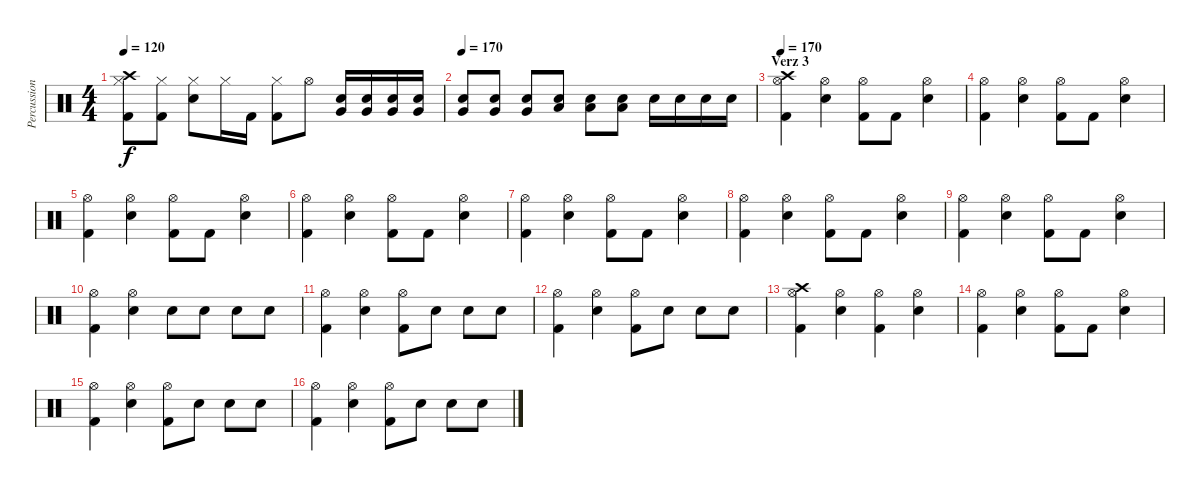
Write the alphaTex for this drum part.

\track ("Percussion - Who the fuck knows" "Percussion") {instrument percussion}
\staff {score}
\articulation defaults
\ts (4 4)
\tempo 120
\clef neutral
\ks c
("Hi-Hat (closed)" "Kick (hit) 2" "Crash high (hit)").8{dy f} ("Hi-Hat (closed)" "Kick (hit) 2").8 ("Hi-Hat (closed)" "Snare (hit) 2").8 "Hi-Hat (closed)".16 "Kick (hit) 2".16 ("Hi-Hat (closed)" "Kick (hit) 2").8 "Hi-Hat (open)".8 ("Snare (hit) 2" "Very Low Tom (hit)").16 ("Very Low Tom (hit)" "Snare (hit) 2").16 ("Very Low Tom (hit)" "Snare (hit) 2").16 ("Very Low Tom (hit)" "Snare (hit) 2").16 |
\tempo 170
("Very Low Tom (hit)" "Snare (hit) 2").8 ("Very Low Tom (hit)" "Snare (hit) 2").8 ("Very Low Tom (hit)" "Snare (hit) 2").8 ("Low Floor Tom (hit)" "Snare (hit) 2").8 ("Low Floor Tom (hit)" "Snare (hit) 2").8 ("Low Floor Tom (hit)" "Snare (hit) 2").8 "Snare (hit) 2".16 "Snare (hit) 2".16 "Snare (hit) 2".16 "Snare (hit) 2".16 |
\section ("" "Verz 3")
\tempo 170
("Crash high (hit)" "Kick (hit) 2" "Hi-Hat (open)").4 ("Hi-Hat (open)" "Snare (hit) 2").4 ("Hi-Hat (open)" "Kick (hit) 2").8 "Kick (hit) 2".8 ("Hi-Hat (open)" "Snare (hit) 2").4 |
("Hi-Hat (open)" "Kick (hit) 2").4 ("Hi-Hat (open)" "Snare (hit) 2").4 ("Hi-Hat (open)" "Kick (hit) 2").8 "Kick (hit) 2".8 ("Hi-Hat (open)" "Snare (hit) 2").4 |
("Hi-Hat (open)" "Kick (hit) 2").4 ("Hi-Hat (open)" "Snare (hit) 2").4 ("Hi-Hat (open)" "Kick (hit) 2").8 "Kick (hit) 2".8 ("Hi-Hat (open)" "Snare (hit) 2").4 |
("Hi-Hat (open)" "Kick (hit) 2").4 ("Hi-Hat (open)" "Snare (hit) 2").4 ("Hi-Hat (open)" "Kick (hit) 2").8 "Kick (hit) 2".8 ("Hi-Hat (open)" "Snare (hit) 2").4 |
("Kick (hit) 2" "Hi-Hat (open)").4 ("Hi-Hat (open)" "Snare (hit) 2").4 ("Hi-Hat (open)" "Kick (hit) 2").8 "Kick (hit) 2".8 ("Hi-Hat (open)" "Snare (hit) 2").4 |
("Hi-Hat (open)" "Kick (hit) 2").4 ("Hi-Hat (open)" "Snare (hit) 2").4 ("Hi-Hat (open)" "Kick (hit) 2").8 "Kick (hit) 2".8 ("Hi-Hat (open)" "Snare (hit) 2").4 |
("Hi-Hat (open)" "Kick (hit) 2").4 ("Hi-Hat (open)" "Snare (hit) 2").4 ("Hi-Hat (open)" "Kick (hit) 2").8 "Kick (hit) 2".8 ("Hi-Hat (open)" "Snare (hit) 2").4 |
("Hi-Hat (open)" "Kick (hit) 2").4 ("Hi-Hat (open)" "Snare (hit) 2").4 "Snare (hit) 2".8 "Snare (hit) 2".8 "Snare (hit) 2".8 "Snare (hit) 2".8 |
("Hi-Hat (open)" "Kick (hit) 2").4 ("Hi-Hat (open)" "Snare (hit) 2").4 ("Hi-Hat (open)" "Kick (hit) 2").8 "Snare (hit) 2".8 "Snare (hit) 2".8 "Snare (hit) 2".8 |
("Hi-Hat (open)" "Kick (hit) 2").4 ("Hi-Hat (open)" "Snare (hit) 2").4 ("Hi-Hat (open)" "Kick (hit) 2").8 "Snare (hit) 2".8 "Snare (hit) 2".8 "Snare (hit) 2".8 |
("Hi-Hat (open)" "Kick (hit) 2" "Crash high (hit)").4 ("Hi-Hat (open)" "Snare (hit) 2").4 ("Hi-Hat (open)" "Kick (hit) 2").4 ("Hi-Hat (open)" "Snare (hit) 2").4 |
("Hi-Hat (open)" "Kick (hit) 2").4 ("Hi-Hat (open)" "Snare (hit) 2").4 ("Hi-Hat (open)" "Kick (hit) 2").8 "Kick (hit) 2".8 ("Hi-Hat (open)" "Snare (hit) 2").4 |
("Hi-Hat (open)" "Kick (hit) 2").4 ("Hi-Hat (open)" "Snare (hit) 2").4 ("Hi-Hat (open)" "Kick (hit) 2").8 "Snare (hit) 2".8 "Snare (hit) 2".8 "Snare (hit) 2".8 |
("Hi-Hat (open)" "Kick (hit) 2").4 ("Hi-Hat (open)" "Snare (hit) 2").4 ("Hi-Hat (open)" "Kick (hit) 2").8 "Snare (hit) 2".8 "Snare (hit) 2".8 "Snare (hit) 2".8
